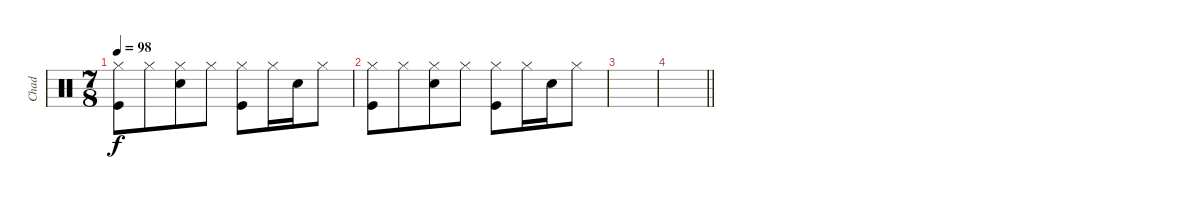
\track ("Chad" "Chad") {instrument percussion}
\staff {score}
\articulation defaults
\ts (7 8)
\tempo 98
\clef neutral
\ks c
("Hi-Hat (closed)" "Kick (hit)").8{dy f} "Hi-Hat (closed)".8 ("Hi-Hat (closed)" "Snare (hit) 2").8 "Hi-Hat (closed)".8 ("Hi-Hat (closed)" "Kick (hit)").8 "Hi-Hat (closed)".16 "Snare (hit) 2".16 "Hi-Hat (closed)".8 |
("Hi-Hat (closed)" "Kick (hit)").8 "Hi-Hat (closed)".8 ("Hi-Hat (closed)" "Snare (hit) 2").8 "Hi-Hat (closed)".8 ("Hi-Hat (closed)" "Kick (hit)").8 "Hi-Hat (closed)".16 "Snare (hit) 2".16 "Hi-Hat (closed)".8 |
|
\barLineRight lightlight
